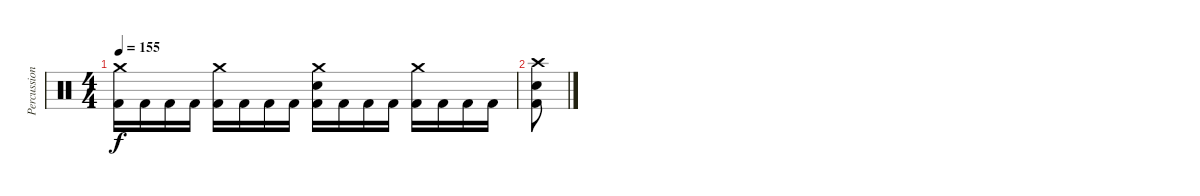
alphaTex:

\track ("Percussion" "Percussion") {instrument percussion}
\staff {score}
\articulation defaults
\ts (4 4)
\tempo 155
\clef neutral
\ks c
("Crash medium (hit)" "Kick (hit) 2").16{dy f} "Kick (hit) 2".16 "Kick (hit) 2".16 "Kick (hit) 2".16 ("Crash medium (hit)" "Kick (hit) 2").16 "Kick (hit) 2".16 "Kick (hit) 2".16 "Kick (hit) 2".16 ("Crash medium (hit)" "Electric Snare (hit)" "Kick (hit) 2").16 "Kick (hit) 2".16 "Kick (hit) 2".16 "Kick (hit) 2".16 ("Crash medium (hit)" "Kick (hit) 2").16 "Kick (hit) 2".16 "Kick (hit) 2".16 "Kick (hit) 2".16 |
("Crash high (hit)" "Electric Snare (hit)" "Kick (hit) 2").8
